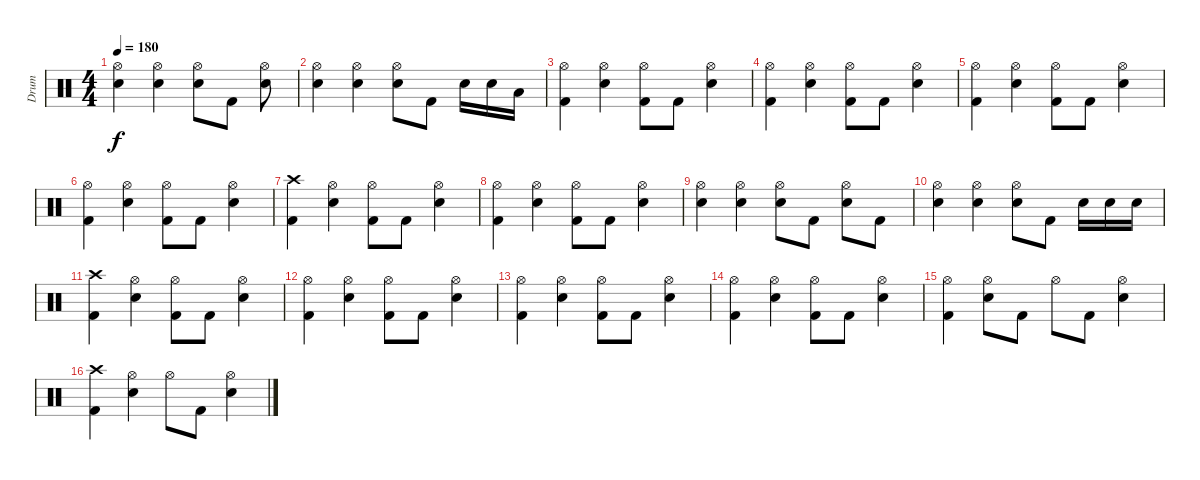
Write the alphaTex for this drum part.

\track ("Drum" "Drum") {instrument percussion}
\staff {score}
\articulation defaults
\ts (4 4)
\tempo 180
\clef neutral
\ks c
("Hi-Hat (open)" "Electric Snare (hit)").4{dy f} ("Hi-Hat (open)" "Electric Snare (hit)").4 ("Hi-Hat (open)" "Electric Snare (hit)").8 "Kick (hit) 2".8 ("Hi-Hat (open)" "Electric Snare (hit)").8 |
("Hi-Hat (open)" "Electric Snare (hit)").4 ("Hi-Hat (open)" "Electric Snare (hit)").4 ("Hi-Hat (open)" "Electric Snare (hit)").8 "Kick (hit) 2".8 "Electric Snare (hit)".16 "Electric Snare (hit)".16 "Low Tom (hit)".16 |
("Hi-Hat (open)" "Kick (hit) 2").4 ("Hi-Hat (open)" "Electric Snare (hit)").4 ("Hi-Hat (open)" "Kick (hit) 2").8 "Kick (hit) 2".8 ("Hi-Hat (open)" "Electric Snare (hit)").4 |
("Hi-Hat (open)" "Kick (hit) 2").4 ("Hi-Hat (open)" "Electric Snare (hit)").4 ("Hi-Hat (open)" "Kick (hit) 2").8 "Kick (hit) 2".8 ("Hi-Hat (open)" "Electric Snare (hit)").4 |
("Hi-Hat (open)" "Kick (hit) 2").4 ("Hi-Hat (open)" "Electric Snare (hit)").4 ("Hi-Hat (open)" "Kick (hit) 2").8 "Kick (hit) 2".8 ("Hi-Hat (open)" "Electric Snare (hit)").4 |
("Hi-Hat (open)" "Kick (hit) 2").4 ("Hi-Hat (open)" "Electric Snare (hit)").4 ("Hi-Hat (open)" "Kick (hit) 2").8 "Kick (hit) 2".8 ("Hi-Hat (open)" "Electric Snare (hit)").4 |
("Crash high (hit)" "Kick (hit) 2").4 ("Hi-Hat (open)" "Electric Snare (hit)").4 ("Hi-Hat (open)" "Kick (hit) 2").8 "Kick (hit) 2".8 ("Hi-Hat (open)" "Electric Snare (hit)").4 |
("Hi-Hat (open)" "Kick (hit) 2").4 ("Hi-Hat (open)" "Electric Snare (hit)").4 ("Hi-Hat (open)" "Kick (hit) 2").8 "Kick (hit) 2".8 ("Hi-Hat (open)" "Electric Snare (hit)").4 |
("Hi-Hat (open)" "Electric Snare (hit)").4 ("Hi-Hat (open)" "Electric Snare (hit)").4 ("Hi-Hat (open)" "Electric Snare (hit)").8 "Kick (hit) 2".8 ("Hi-Hat (open)" "Electric Snare (hit)").8 "Kick (hit) 2".8 |
("Hi-Hat (open)" "Electric Snare (hit)").4 ("Hi-Hat (open)" "Electric Snare (hit)").4 ("Hi-Hat (open)" "Electric Snare (hit)").8 "Kick (hit) 2".8 "Electric Snare (hit)".16 "Electric Snare (hit)".16 "Electric Snare (hit)".16 |
("Crash high (hit)" "Kick (hit) 2").4 ("Hi-Hat (open)" "Electric Snare (hit)").4 ("Hi-Hat (open)" "Kick (hit) 2").8 "Kick (hit) 2".8 ("Hi-Hat (open)" "Electric Snare (hit)").4 |
("Hi-Hat (open)" "Kick (hit) 2").4 ("Hi-Hat (open)" "Electric Snare (hit)").4 ("Hi-Hat (open)" "Kick (hit) 2").8 "Kick (hit) 2".8 ("Hi-Hat (open)" "Electric Snare (hit)").4 |
("Hi-Hat (open)" "Kick (hit) 2").4 ("Hi-Hat (open)" "Electric Snare (hit)").4 ("Hi-Hat (open)" "Kick (hit) 2").8 "Kick (hit) 2".8 ("Hi-Hat (open)" "Electric Snare (hit)").4 |
("Hi-Hat (open)" "Kick (hit) 2").4 ("Hi-Hat (open)" "Electric Snare (hit)").4 ("Hi-Hat (open)" "Kick (hit) 2").8 "Kick (hit) 2".8 ("Hi-Hat (open)" "Electric Snare (hit)").4 |
("Hi-Hat (open)" "Kick (hit) 2").4 ("Hi-Hat (open)" "Electric Snare (hit)").8 "Kick (hit) 2".8 "Hi-Hat (open)".8 "Kick (hit) 2".8 ("Hi-Hat (open)" "Electric Snare (hit)").4 |
("Crash high (hit)" "Kick (hit) 2").4 ("Hi-Hat (open)" "Electric Snare (hit)").4 "Hi-Hat (open)".8 "Kick (hit) 2".8 ("Hi-Hat (open)" "Electric Snare (hit)").4
